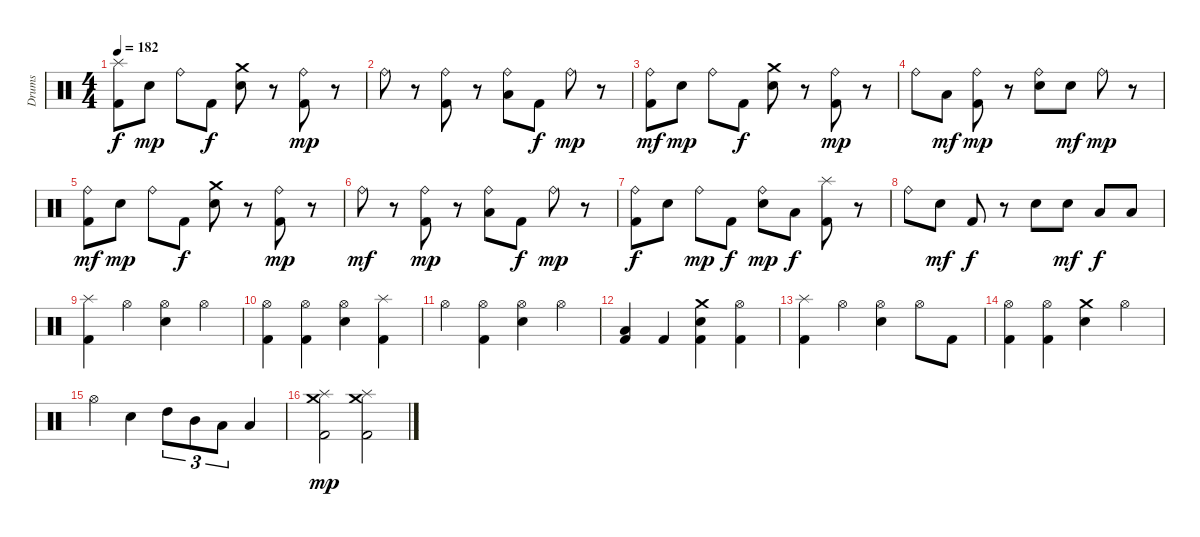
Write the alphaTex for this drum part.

\track ("Drums" "Drums") {instrument percussion}
\staff {score}
\articulation defaults
\ts (4 4)
\tempo 182
\clef neutral
\ks c
("Splash (hit)" "Kick (hit) 2").8{dy f} "Snare (hit) 2".8{dy mp} "Ride (bell)".8 "Kick (hit) 2".8{dy f} ("Crash medium (hit)" "Snare (hit) 2").8 r.8 ("Ride (bell)" "Kick (hit) 2").8{dy mp} r.8 |
"Ride (bell)".8 r.8 ("Ride (bell)" "Kick (hit) 2").8 r.8 ("Ride (bell)" "Low Tom (hit)").8 "Kick (hit) 2".8{dy f} "Ride (bell)".8{dy mp} r.8 |
("Ride (bell)" "Kick (hit) 2").8{dy mf} "Snare (hit) 2".8{dy mp} "Ride (bell)".8 "Kick (hit) 2".8{dy f} ("Crash medium (hit)" "Snare (hit) 2").8 r.8 ("Ride (bell)" "Kick (hit) 2").8{dy mp} r.8 |
"Ride (bell)".8 "Low Tom (hit)".8{dy mf} ("Ride (bell)" "Kick (hit) 2").8{dy mp} r.8 ("Ride (bell)" "Snare (hit) 2").8 "Snare (hit) 2".8{dy mf} "Ride (bell)".8{dy mp} r.8 |
("Ride (bell)" "Kick (hit) 2").8{dy mf} "Snare (hit) 2".8{dy mp} "Ride (bell)".8 "Kick (hit) 2".8{dy f} ("Crash medium (hit)" "Snare (hit) 2").8 r.8 ("Ride (bell)" "Kick (hit) 2").8{dy mp} r.8 |
"Ride (bell)".8{dy mf} r.8 ("Ride (bell)" "Kick (hit) 2").8{dy mp} r.8 ("Ride (bell)" "Low Tom (hit)").8 "Kick (hit) 2".8{dy f} "Ride (bell)".8{dy mp} r.8 |
("Ride (bell)" "Kick (hit) 2").8{dy f} "Snare (hit) 2".8 "Ride (bell)".8{dy mp} "Kick (hit) 2".8{dy f} ("Ride (bell)" "Snare (hit) 2").8{dy mp} "Low Tom (hit)".8{dy f} ("Splash (hit)" "Kick (hit) 2").8 r.8 |
"Ride (bell)".8 "Snare (hit) 2".8{dy mf} "Kick (hit) 2".8{dy f} r.8 "Snare (hit) 2".8 "Snare (hit) 2".8{dy mf} "Low Tom (hit)".8{dy f} "Low Floor Tom (hit)".8 |
("Splash (hit)" "Kick (hit) 2").4 "Hi-Hat (open)".4 ("Hi-Hat (open)" "Snare (hit) 2").4 "Hi-Hat (open)".4 |
("Hi-Hat (open)" "Kick (hit) 2").4 ("Hi-Hat (open)" "Kick (hit) 2").4 ("Hi-Hat (open)" "Snare (hit) 2").4 ("Splash (hit)" "Kick (hit) 2").4 |
"Hi-Hat (open)".4 ("Hi-Hat (open)" "Kick (hit) 2").4 ("Hi-Hat (open)" "Snare (hit) 2").4 "Hi-Hat (open)".4 |
("Low Tom (hit)" "Kick (hit) 2").4 "Kick (hit) 2".4 ("Crash medium (hit)" "Snare (hit) 2" "Kick (hit) 2").4 ("Hi-Hat (open)" "Kick (hit) 2").4 |
("Splash (hit)" "Kick (hit) 2").4 "Hi-Hat (open)".4 ("Hi-Hat (open)" "Snare (hit) 2").4 "Hi-Hat (open)".8 "Kick (hit) 2".8 |
("Hi-Hat (open)" "Kick (hit) 2").4 ("Hi-Hat (open)" "Kick (hit) 2").4 ("Crash medium (hit)" "Snare (hit) 2").4 "Hi-Hat (open)".4 |
"Hi-Hat (open)".4 "Snare (hit) 2".4 "High Tom (hit)".8{tu (3 2)} "Mid Tom (hit)".8{tu (3 2)} "Low Tom (hit)".8{tu (3 2)} "Low Floor Tom (hit)".4 |
("Crash medium (hit)" "Splash (hit)" "Kick (hit) 2").2{dy mp} ("Crash medium (hit)" "Splash (hit)" "Kick (hit) 2").2
